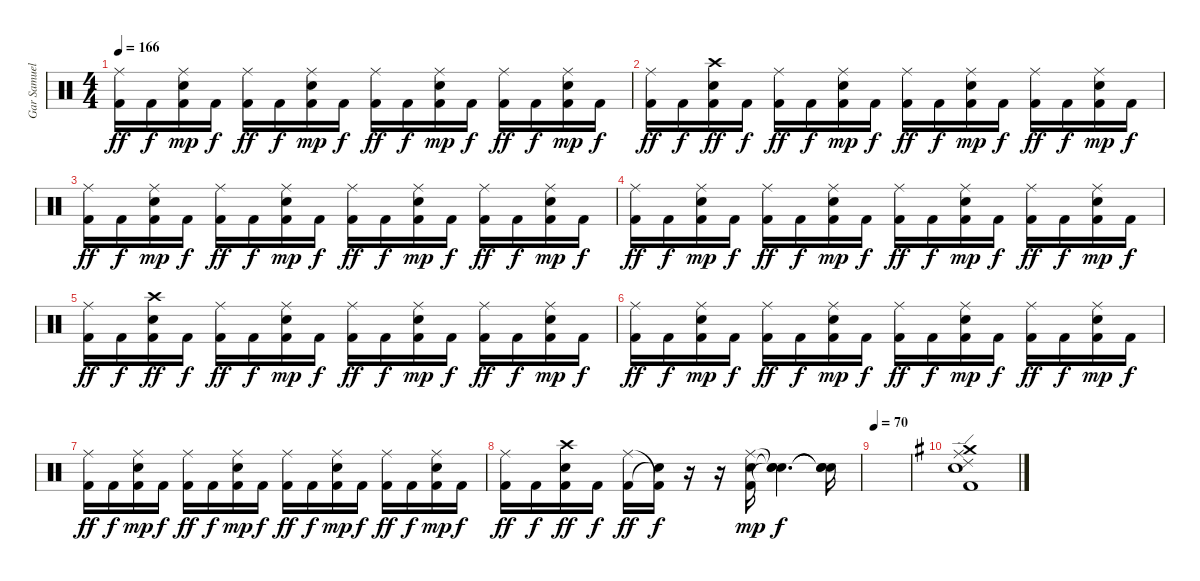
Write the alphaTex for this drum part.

\track ("Gar Samuelson" "Gar Samuel") {instrument percussion}
\staff {score}
\articulation defaults
\ts (4 4)
\tempo 166
\clef neutral
\ks c
("Ride (middle)" "Kick (hit) 2").16{dy ff} "Kick (hit) 2".16{dy f} ("Kick (hit) 2" "Snare (hit) 2" "Ride (middle)").16{dy mp} "Kick (hit) 2".16{dy f} ("Ride (middle)" "Kick (hit) 2").16{dy ff} "Kick (hit) 2".16{dy f} ("Kick (hit) 2" "Snare (hit) 2" "Ride (middle)").16{dy mp} "Kick (hit) 2".16{dy f} ("Ride (middle)" "Kick (hit) 2").16{dy ff} "Kick (hit) 2".16{dy f} ("Kick (hit) 2" "Snare (hit) 2" "Ride (middle)").16{dy mp} "Kick (hit) 2".16{dy f} ("Ride (middle)" "Kick (hit) 2").16{dy ff} "Kick (hit) 2".16{dy f} ("Kick (hit) 2" "Snare (hit) 2" "Ride (middle)").16{dy mp} "Kick (hit) 2".16{dy f} |
("Ride (middle)" "Kick (hit) 2").16{dy ff} "Kick (hit) 2".16{dy f} ("Snare (hit) 2" "Crash high (hit)" "Kick (hit) 2").16{dy ff} "Kick (hit) 2".16{dy f} ("Ride (middle)" "Kick (hit) 2").16{dy ff} "Kick (hit) 2".16{dy f} ("Kick (hit) 2" "Snare (hit) 2" "Ride (middle)").16{dy mp} "Kick (hit) 2".16{dy f} ("Ride (middle)" "Kick (hit) 2").16{dy ff} "Kick (hit) 2".16{dy f} ("Kick (hit) 2" "Snare (hit) 2" "Ride (middle)").16{dy mp} "Kick (hit) 2".16{dy f} ("Ride (middle)" "Kick (hit) 2").16{dy ff} "Kick (hit) 2".16{dy f} ("Kick (hit) 2" "Snare (hit) 2" "Ride (middle)").16{dy mp} "Kick (hit) 2".16{dy f} |
("Ride (middle)" "Kick (hit) 2").16{dy ff} "Kick (hit) 2".16{dy f} ("Kick (hit) 2" "Snare (hit) 2" "Ride (middle)").16{dy mp} "Kick (hit) 2".16{dy f} ("Ride (middle)" "Kick (hit) 2").16{dy ff} "Kick (hit) 2".16{dy f} ("Kick (hit) 2" "Snare (hit) 2" "Ride (middle)").16{dy mp} "Kick (hit) 2".16{dy f} ("Ride (middle)" "Kick (hit) 2").16{dy ff} "Kick (hit) 2".16{dy f} ("Kick (hit) 2" "Snare (hit) 2" "Ride (middle)").16{dy mp} "Kick (hit) 2".16{dy f} ("Ride (middle)" "Kick (hit) 2").16{dy ff} "Kick (hit) 2".16{dy f} ("Kick (hit) 2" "Snare (hit) 2" "Ride (middle)").16{dy mp} "Kick (hit) 2".16{dy f} |
("Ride (middle)" "Kick (hit) 2").16{dy ff} "Kick (hit) 2".16{dy f} ("Kick (hit) 2" "Snare (hit) 2" "Ride (middle)").16{dy mp} "Kick (hit) 2".16{dy f} ("Ride (middle)" "Kick (hit) 2").16{dy ff} "Kick (hit) 2".16{dy f} ("Kick (hit) 2" "Snare (hit) 2" "Ride (middle)").16{dy mp} "Kick (hit) 2".16{dy f} ("Ride (middle)" "Kick (hit) 2").16{dy ff} "Kick (hit) 2".16{dy f} ("Kick (hit) 2" "Snare (hit) 2" "Ride (middle)").16{dy mp} "Kick (hit) 2".16{dy f} ("Ride (middle)" "Kick (hit) 2").16{dy ff} "Kick (hit) 2".16{dy f} ("Kick (hit) 2" "Snare (hit) 2" "Ride (middle)").16{dy mp} "Kick (hit) 2".16{dy f} |
("Ride (middle)" "Kick (hit) 2").16{dy ff} "Kick (hit) 2".16{dy f} ("Snare (hit) 2" "Crash high (hit)" "Kick (hit) 2").16{dy ff} "Kick (hit) 2".16{dy f} ("Ride (middle)" "Kick (hit) 2").16{dy ff} "Kick (hit) 2".16{dy f} ("Kick (hit) 2" "Snare (hit) 2" "Ride (middle)").16{dy mp} "Kick (hit) 2".16{dy f} ("Ride (middle)" "Kick (hit) 2").16{dy ff} "Kick (hit) 2".16{dy f} ("Kick (hit) 2" "Snare (hit) 2" "Ride (middle)").16{dy mp} "Kick (hit) 2".16{dy f} ("Ride (middle)" "Kick (hit) 2").16{dy ff} "Kick (hit) 2".16{dy f} ("Kick (hit) 2" "Snare (hit) 2" "Ride (middle)").16{dy mp} "Kick (hit) 2".16{dy f} |
("Ride (middle)" "Kick (hit) 2").16{dy ff} "Kick (hit) 2".16{dy f} ("Kick (hit) 2" "Snare (hit) 2" "Ride (middle)").16{dy mp} "Kick (hit) 2".16{dy f} ("Ride (middle)" "Kick (hit) 2").16{dy ff} "Kick (hit) 2".16{dy f} ("Kick (hit) 2" "Snare (hit) 2" "Ride (middle)").16{dy mp} "Kick (hit) 2".16{dy f} ("Ride (middle)" "Kick (hit) 2").16{dy ff} "Kick (hit) 2".16{dy f} ("Kick (hit) 2" "Snare (hit) 2" "Ride (middle)").16{dy mp} "Kick (hit) 2".16{dy f} ("Ride (middle)" "Kick (hit) 2").16{dy ff} "Kick (hit) 2".16{dy f} ("Kick (hit) 2" "Snare (hit) 2" "Ride (middle)").16{dy mp} "Kick (hit) 2".16{dy f} |
("Ride (middle)" "Kick (hit) 2").16{dy ff} "Kick (hit) 2".16{dy f} ("Kick (hit) 2" "Snare (hit) 2" "Ride (middle)").16{dy mp} "Kick (hit) 2".16{dy f} ("Ride (middle)" "Kick (hit) 2").16{dy ff} "Kick (hit) 2".16{dy f} ("Kick (hit) 2" "Snare (hit) 2" "Ride (middle)").16{dy mp} "Kick (hit) 2".16{dy f} ("Ride (middle)" "Kick (hit) 2").16{dy ff} "Kick (hit) 2".16{dy f} ("Kick (hit) 2" "Snare (hit) 2" "Ride (middle)").16{dy mp} "Kick (hit) 2".16{dy f} ("Ride (middle)" "Kick (hit) 2").16{dy ff} "Kick (hit) 2".16{dy f} ("Kick (hit) 2" "Snare (hit) 2" "Ride (middle)").16{dy mp} "Kick (hit) 2".16{dy f} |
("Ride (middle)" "Kick (hit) 2").16{dy ff} "Kick (hit) 2".16{dy f} ("Snare (hit) 2" "Crash high (hit)" "Kick (hit) 2").16{dy ff} "Kick (hit) 2".16{dy f} ("Ride (middle)" "Kick (hit) 2").16{dy ff} ("Kick (hit) 2"{t} "Snare (hit)"{t}).16{dy f} r.16 r.16 ("Kick (hit) 2" "Snare (hit) 2" "Ride (middle)").16{dy mp} ("Snare (hit)"{t} "Snare (hit)"{t} "Snare (hit)"{t}).4{d dy f} ("Snare (hit)"{t} "Snare (hit)"{t} "Snare (hit)"{t}).16 |
\tempo 70
|
\ks g
("Kick (hit) 2" "Snare (hit) 2" "Ride (middle)" "Ride (edge) 2" "Crash medium (hit)").1
